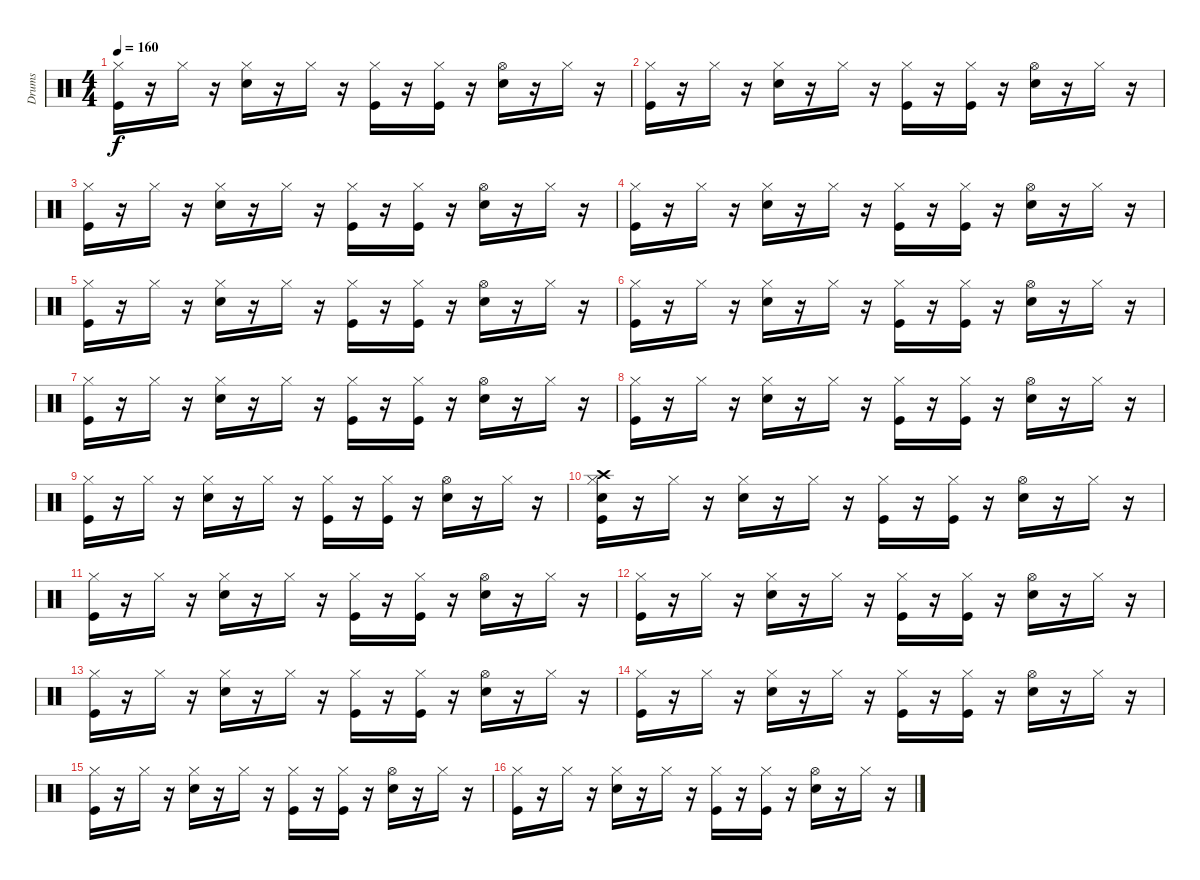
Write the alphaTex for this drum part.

\track ("Drums" "Drums") {instrument percussion}
\staff {score}
\articulation defaults
\ts (4 4)
\tempo 160
\clef neutral
\ks c
("Hi-Hat (closed)" "Kick (hit)").16{dy f} r.16 "Hi-Hat (closed)".16 r.16 ("Hi-Hat (closed)" "Snare (hit) 2").16 r.16 "Hi-Hat (closed)".16 r.16 ("Hi-Hat (closed)" "Kick (hit)").16 r.16 ("Kick (hit)" "Hi-Hat (closed)").16 r.16 ("Hi-Hat (open)" "Snare (hit) 2").16 r.16 "Hi-Hat (closed)".16 r.16 |
("Hi-Hat (closed)" "Kick (hit)").16 r.16 "Hi-Hat (closed)".16 r.16 ("Hi-Hat (closed)" "Snare (hit) 2").16 r.16 "Hi-Hat (closed)".16 r.16 ("Hi-Hat (closed)" "Kick (hit)").16 r.16 ("Kick (hit)" "Hi-Hat (closed)").16 r.16 ("Hi-Hat (open)" "Snare (hit) 2").16 r.16 "Hi-Hat (closed)".16 r.16 |
("Hi-Hat (closed)" "Kick (hit)").16 r.16 "Hi-Hat (closed)".16 r.16 ("Hi-Hat (closed)" "Snare (hit) 2").16 r.16 "Hi-Hat (closed)".16 r.16 ("Hi-Hat (closed)" "Kick (hit)").16 r.16 ("Kick (hit)" "Hi-Hat (closed)").16 r.16 ("Hi-Hat (open)" "Snare (hit) 2").16 r.16 "Hi-Hat (closed)".16 r.16 |
("Hi-Hat (closed)" "Kick (hit)").16 r.16 "Hi-Hat (closed)".16 r.16 ("Hi-Hat (closed)" "Snare (hit) 2").16 r.16 "Hi-Hat (closed)".16 r.16 ("Hi-Hat (closed)" "Kick (hit)").16 r.16 ("Kick (hit)" "Hi-Hat (closed)").16 r.16 ("Hi-Hat (open)" "Snare (hit) 2").16 r.16 "Hi-Hat (closed)".16 r.16 |
("Hi-Hat (closed)" "Kick (hit)").16 r.16 "Hi-Hat (closed)".16 r.16 ("Hi-Hat (closed)" "Snare (hit) 2").16 r.16 "Hi-Hat (closed)".16 r.16 ("Hi-Hat (closed)" "Kick (hit)").16 r.16 ("Kick (hit)" "Hi-Hat (closed)").16 r.16 ("Hi-Hat (open)" "Snare (hit) 2").16 r.16 "Hi-Hat (closed)".16 r.16 |
("Hi-Hat (closed)" "Kick (hit)").16 r.16 "Hi-Hat (closed)".16 r.16 ("Hi-Hat (closed)" "Snare (hit) 2").16 r.16 "Hi-Hat (closed)".16 r.16 ("Hi-Hat (closed)" "Kick (hit)").16 r.16 ("Kick (hit)" "Hi-Hat (closed)").16 r.16 ("Hi-Hat (open)" "Snare (hit) 2").16 r.16 "Hi-Hat (closed)".16 r.16 |
("Hi-Hat (closed)" "Kick (hit)").16 r.16 "Hi-Hat (closed)".16 r.16 ("Hi-Hat (closed)" "Snare (hit) 2").16 r.16 "Hi-Hat (closed)".16 r.16 ("Hi-Hat (closed)" "Kick (hit)").16 r.16 ("Kick (hit)" "Hi-Hat (closed)").16 r.16 ("Hi-Hat (open)" "Snare (hit) 2").16 r.16 "Hi-Hat (closed)".16 r.16 |
("Hi-Hat (closed)" "Kick (hit)").16 r.16 "Hi-Hat (closed)".16 r.16 ("Hi-Hat (closed)" "Snare (hit) 2").16 r.16 "Hi-Hat (closed)".16 r.16 ("Hi-Hat (closed)" "Kick (hit)").16 r.16 ("Kick (hit)" "Hi-Hat (closed)").16 r.16 ("Hi-Hat (open)" "Snare (hit) 2").16 r.16 "Hi-Hat (closed)".16 r.16 |
("Hi-Hat (closed)" "Kick (hit)").16 r.16 "Hi-Hat (closed)".16 r.16 ("Hi-Hat (closed)" "Snare (hit) 2").16 r.16 "Hi-Hat (closed)".16 r.16 ("Hi-Hat (closed)" "Kick (hit)").16 r.16 ("Kick (hit)" "Hi-Hat (closed)").16 r.16 ("Hi-Hat (open)" "Snare (hit) 2").16 r.16 "Hi-Hat (closed)".16 r.16 |
("Crash high (hit)" "Snare (hit) 2" "Hi-Hat (closed)" "Kick (hit)").16 r.16 "Hi-Hat (closed)".16 r.16 ("Hi-Hat (closed)" "Snare (hit) 2").16 r.16 "Hi-Hat (closed)".16 r.16 ("Hi-Hat (closed)" "Kick (hit)").16 r.16 ("Kick (hit)" "Hi-Hat (closed)").16 r.16 ("Hi-Hat (open)" "Snare (hit) 2").16 r.16 "Hi-Hat (closed)".16 r.16 |
("Hi-Hat (closed)" "Kick (hit)").16 r.16 "Hi-Hat (closed)".16 r.16 ("Hi-Hat (closed)" "Snare (hit) 2").16 r.16 "Hi-Hat (closed)".16 r.16 ("Hi-Hat (closed)" "Kick (hit)").16 r.16 ("Kick (hit)" "Hi-Hat (closed)").16 r.16 ("Hi-Hat (open)" "Snare (hit) 2").16 r.16 "Hi-Hat (closed)".16 r.16 |
("Hi-Hat (closed)" "Kick (hit)").16 r.16 "Hi-Hat (closed)".16 r.16 ("Hi-Hat (closed)" "Snare (hit) 2").16 r.16 "Hi-Hat (closed)".16 r.16 ("Hi-Hat (closed)" "Kick (hit)").16 r.16 ("Kick (hit)" "Hi-Hat (closed)").16 r.16 ("Hi-Hat (open)" "Snare (hit) 2").16 r.16 "Hi-Hat (closed)".16 r.16 |
("Hi-Hat (closed)" "Kick (hit)").16 r.16 "Hi-Hat (closed)".16 r.16 ("Hi-Hat (closed)" "Snare (hit) 2").16 r.16 "Hi-Hat (closed)".16 r.16 ("Hi-Hat (closed)" "Kick (hit)").16 r.16 ("Kick (hit)" "Hi-Hat (closed)").16 r.16 ("Hi-Hat (open)" "Snare (hit) 2").16 r.16 "Hi-Hat (closed)".16 r.16 |
("Hi-Hat (closed)" "Kick (hit)").16 r.16 "Hi-Hat (closed)".16 r.16 ("Hi-Hat (closed)" "Snare (hit) 2").16 r.16 "Hi-Hat (closed)".16 r.16 ("Hi-Hat (closed)" "Kick (hit)").16 r.16 ("Kick (hit)" "Hi-Hat (closed)").16 r.16 ("Hi-Hat (open)" "Snare (hit) 2").16 r.16 "Hi-Hat (closed)".16 r.16 |
("Hi-Hat (closed)" "Kick (hit)").16 r.16 "Hi-Hat (closed)".16 r.16 ("Hi-Hat (closed)" "Snare (hit) 2").16 r.16 "Hi-Hat (closed)".16 r.16 ("Hi-Hat (closed)" "Kick (hit)").16 r.16 ("Kick (hit)" "Hi-Hat (closed)").16 r.16 ("Hi-Hat (open)" "Snare (hit) 2").16 r.16 "Hi-Hat (closed)".16 r.16 |
("Hi-Hat (closed)" "Kick (hit)").16 r.16 "Hi-Hat (closed)".16 r.16 ("Hi-Hat (closed)" "Snare (hit) 2").16 r.16 "Hi-Hat (closed)".16 r.16 ("Hi-Hat (closed)" "Kick (hit)").16 r.16 ("Kick (hit)" "Hi-Hat (closed)").16 r.16 ("Hi-Hat (open)" "Snare (hit) 2").16 r.16 "Hi-Hat (closed)".16 r.16
